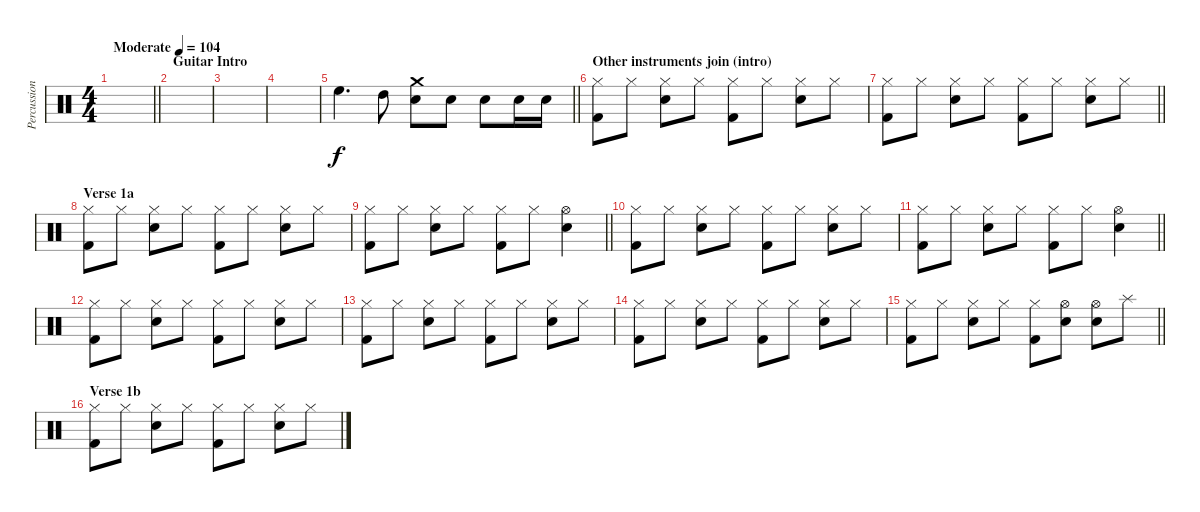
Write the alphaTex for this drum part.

\track ("Percussion" "Percussion") {instrument percussion}
\staff {score}
\articulation defaults
\ts (4 4)
\section ("" "")
\tempo (104 "Moderate")
\clef neutral
\barLineRight lightlight
\ks c
|
\section ("" "Guitar Intro")
|
|
|
\barLineRight lightlight "High Floor Tom (hit)".4{d} "High Tom (hit)".8
("Electric Snare (hit)" "Crash medium (hit)").8 "Electric Snare (hit)".8 "Electric Snare (hit)".8 "Electric Snare (hit)".16 "Electric Snare (hit)".16 |
\section ("" "Other instruments join (intro)")
("Kick (hit) 2" "Hi-Hat (closed)").8 "Hi-Hat (closed)".8 ("Hi-Hat (closed)" "Electric Snare (hit)").8 "Hi-Hat (closed)".8 ("Kick (hit) 2" "Hi-Hat (closed)").8 "Hi-Hat (closed)".8 ("Hi-Hat (closed)" "Electric Snare (hit)").8 "Hi-Hat (closed)".8 |
\barLineRight lightlight
("Kick (hit) 2" "Hi-Hat (closed)").8 "Hi-Hat (closed)".8 ("Hi-Hat (closed)" "Electric Snare (hit)").8 "Hi-Hat (closed)".8 ("Kick (hit) 2" "Hi-Hat (closed)").8 "Hi-Hat (closed)".8 ("Hi-Hat (closed)" "Electric Snare (hit)").8 "Hi-Hat (closed)".8 |
\section ("" "Verse 1a")
("Kick (hit) 2" "Hi-Hat (closed)").8 "Hi-Hat (closed)".8 ("Hi-Hat (closed)" "Electric Snare (hit)").8 "Hi-Hat (closed)".8 ("Kick (hit) 2" "Hi-Hat (closed)").8 "Hi-Hat (closed)".8 ("Hi-Hat (closed)" "Electric Snare (hit)").8 "Hi-Hat (closed)".8 |
\barLineRight lightlight
("Kick (hit) 2" "Hi-Hat (closed)").8 "Hi-Hat (closed)".8 ("Hi-Hat (closed)" "Electric Snare (hit)").8 "Hi-Hat (closed)".8 ("Kick (hit) 2" "Hi-Hat (closed)").8 "Hi-Hat (closed)".8 ("Hi-Hat (open)" "Electric Snare (hit)").4 |
("Kick (hit) 2" "Hi-Hat (closed)").8 "Hi-Hat (closed)".8 ("Hi-Hat (closed)" "Electric Snare (hit)").8 "Hi-Hat (closed)".8 ("Kick (hit) 2" "Hi-Hat (closed)").8 "Hi-Hat (closed)".8 ("Hi-Hat (closed)" "Electric Snare (hit)").8 "Hi-Hat (closed)".8 |
\barLineRight lightlight
("Kick (hit) 2" "Hi-Hat (closed)").8 "Hi-Hat (closed)".8 ("Hi-Hat (closed)" "Electric Snare (hit)").8 "Hi-Hat (closed)".8 ("Kick (hit) 2" "Hi-Hat (closed)").8 "Hi-Hat (closed)".8 ("Hi-Hat (open)" "Electric Snare (hit)").4 |
("Kick (hit) 2" "Hi-Hat (closed)").8 "Hi-Hat (closed)".8 ("Hi-Hat (closed)" "Electric Snare (hit)").8 "Hi-Hat (closed)".8 ("Kick (hit) 2" "Hi-Hat (closed)").8 "Hi-Hat (closed)".8 ("Hi-Hat (closed)" "Electric Snare (hit)").8 "Hi-Hat (closed)".8 |
("Kick (hit) 2" "Hi-Hat (closed)").8 "Hi-Hat (closed)".8 ("Hi-Hat (closed)" "Electric Snare (hit)").8 "Hi-Hat (closed)".8 ("Kick (hit) 2" "Hi-Hat (closed)").8 "Hi-Hat (closed)".8 ("Hi-Hat (closed)" "Electric Snare (hit)").8 "Hi-Hat (closed)".8 |
("Kick (hit) 2" "Hi-Hat (closed)").8 "Hi-Hat (closed)".8 ("Hi-Hat (closed)" "Electric Snare (hit)").8 "Hi-Hat (closed)".8 ("Kick (hit) 2" "Hi-Hat (closed)").8 "Hi-Hat (closed)".8 ("Hi-Hat (closed)" "Electric Snare (hit)").8 "Hi-Hat (closed)".8 |
\barLineRight lightlight
("Kick (hit) 2" "Hi-Hat (closed)").8 "Hi-Hat (closed)".8 ("Hi-Hat (closed)" "Electric Snare (hit)").8 "Hi-Hat (closed)".8 ("Kick (hit) 2" "Hi-Hat (closed)").8 ("Hi-Hat (open)" "Electric Snare (hit)").8 ("Hi-Hat (open)" "Electric Snare (hit)").8 "Splash (hit)".8 |
\section ("" "Verse 1b")
("Kick (hit) 2" "Hi-Hat (closed)").8 "Hi-Hat (closed)".8 ("Hi-Hat (closed)" "Electric Snare (hit)").8 "Hi-Hat (closed)".8 ("Kick (hit) 2" "Hi-Hat (closed)").8 "Hi-Hat (closed)".8 ("Hi-Hat (closed)" "Electric Snare (hit)").8 "Hi-Hat (closed)".8
